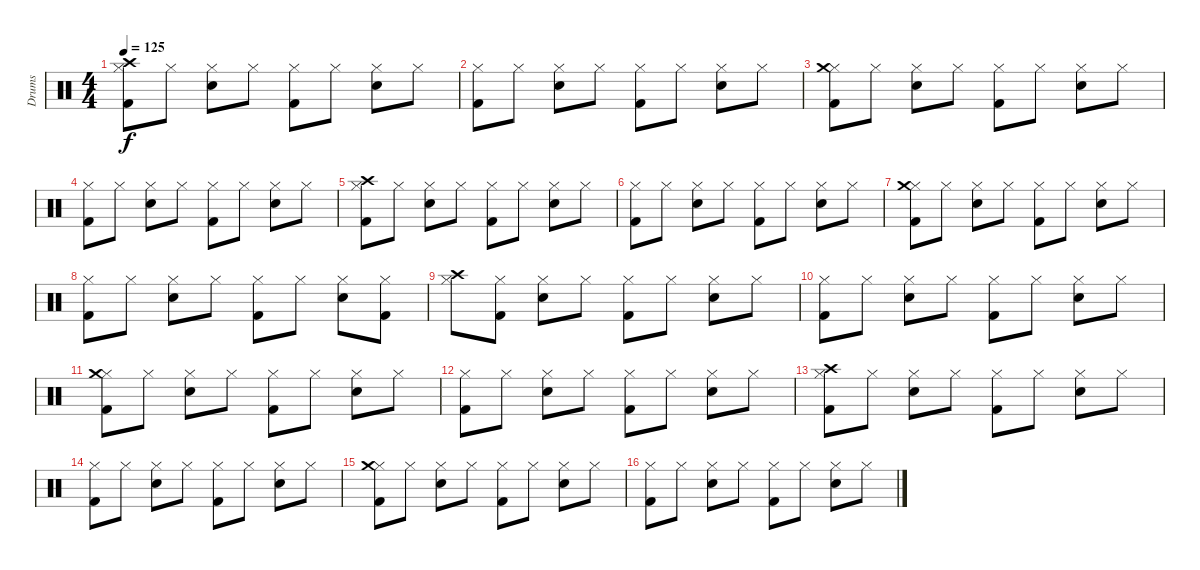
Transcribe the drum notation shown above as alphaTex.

\track ("Drums" "Drums") {instrument percussion}
\staff {score}
\articulation defaults
\ts (4 4)
\tempo 125
\clef neutral
\ks c
("Kick (hit) 2" "Hi-Hat (closed)" "Crash high (hit)").8{dy f} "Hi-Hat (closed)".8 ("Snare (hit) 2" "Hi-Hat (closed)").8 "Hi-Hat (closed)".8 ("Kick (hit) 2" "Hi-Hat (closed)").8 "Hi-Hat (closed)".8 ("Snare (hit) 2" "Hi-Hat (closed)").8 "Hi-Hat (closed)".8 |
("Kick (hit) 2" "Hi-Hat (closed)").8 "Hi-Hat (closed)".8 ("Snare (hit) 2" "Hi-Hat (closed)").8 "Hi-Hat (closed)".8 ("Kick (hit) 2" "Hi-Hat (closed)").8 "Hi-Hat (closed)".8 ("Snare (hit) 2" "Hi-Hat (closed)").8 "Hi-Hat (closed)".8 |
("Kick (hit) 2" "Hi-Hat (closed)" "Crash medium (hit)").8 "Hi-Hat (closed)".8 ("Snare (hit) 2" "Hi-Hat (closed)").8 "Hi-Hat (closed)".8 ("Kick (hit) 2" "Hi-Hat (closed)").8 "Hi-Hat (closed)".8 ("Snare (hit) 2" "Hi-Hat (closed)").8 "Hi-Hat (closed)".8 |
("Kick (hit) 2" "Hi-Hat (closed)").8 "Hi-Hat (closed)".8 ("Snare (hit) 2" "Hi-Hat (closed)").8 "Hi-Hat (closed)".8 ("Kick (hit) 2" "Hi-Hat (closed)").8 "Hi-Hat (closed)".8 ("Snare (hit) 2" "Hi-Hat (closed)").8 "Hi-Hat (closed)".8 |
("Hi-Hat (closed)" "Kick (hit) 2" "Crash high (hit)").8 "Hi-Hat (closed)".8 ("Hi-Hat (closed)" "Snare (hit) 2").8 "Hi-Hat (closed)".8 ("Hi-Hat (closed)" "Kick (hit) 2").8 "Hi-Hat (closed)".8 ("Hi-Hat (closed)" "Snare (hit) 2").8 "Hi-Hat (closed)".8 |
("Hi-Hat (closed)" "Kick (hit) 2").8 "Hi-Hat (closed)".8 ("Hi-Hat (closed)" "Snare (hit) 2").8 "Hi-Hat (closed)".8 ("Hi-Hat (closed)" "Kick (hit) 2").8 "Hi-Hat (closed)".8 ("Hi-Hat (closed)" "Snare (hit) 2").8 "Hi-Hat (closed)".8 |
("Hi-Hat (closed)" "Kick (hit) 2" "Crash medium (hit)").8 "Hi-Hat (closed)".8 ("Hi-Hat (closed)" "Snare (hit) 2").8 "Hi-Hat (closed)".8 ("Hi-Hat (closed)" "Kick (hit) 2").8 "Hi-Hat (closed)".8 ("Hi-Hat (closed)" "Snare (hit) 2").8 "Hi-Hat (closed)".8 |
("Hi-Hat (closed)" "Kick (hit) 2").8 "Hi-Hat (closed)".8 ("Hi-Hat (closed)" "Snare (hit) 2").8 "Hi-Hat (closed)".8 ("Hi-Hat (closed)" "Kick (hit) 2").8 "Hi-Hat (closed)".8 ("Hi-Hat (closed)" "Snare (hit) 2").8 ("Kick (hit) 2" "Hi-Hat (closed)").8 |
("Hi-Hat (closed)" "Crash high (hit)").8 ("Hi-Hat (closed)" "Kick (hit) 2").8 ("Hi-Hat (closed)" "Snare (hit) 2").8 "Hi-Hat (closed)".8 ("Hi-Hat (closed)" "Kick (hit) 2").8 "Hi-Hat (closed)".8 ("Hi-Hat (closed)" "Snare (hit) 2").8 "Hi-Hat (closed)".8 |
("Hi-Hat (closed)" "Kick (hit) 2").8 "Hi-Hat (closed)".8 ("Hi-Hat (closed)" "Snare (hit) 2").8 "Hi-Hat (closed)".8 ("Hi-Hat (closed)" "Kick (hit) 2").8 "Hi-Hat (closed)".8 ("Hi-Hat (closed)" "Snare (hit) 2").8 "Hi-Hat (closed)".8 |
("Hi-Hat (closed)" "Crash medium (hit)" "Kick (hit) 2").8 "Hi-Hat (closed)".8 ("Hi-Hat (closed)" "Snare (hit) 2").8 "Hi-Hat (closed)".8 ("Hi-Hat (closed)" "Kick (hit) 2").8 "Hi-Hat (closed)".8 ("Hi-Hat (closed)" "Snare (hit) 2").8 "Hi-Hat (closed)".8 |
("Hi-Hat (closed)" "Kick (hit) 2").8 "Hi-Hat (closed)".8 ("Hi-Hat (closed)" "Snare (hit) 2").8 "Hi-Hat (closed)".8 ("Hi-Hat (closed)" "Kick (hit) 2").8 "Hi-Hat (closed)".8 ("Hi-Hat (closed)" "Snare (hit) 2").8 "Hi-Hat (closed)".8 |
("Hi-Hat (closed)" "Kick (hit) 2" "Crash high (hit)").8 "Hi-Hat (closed)".8 ("Hi-Hat (closed)" "Snare (hit) 2").8 "Hi-Hat (closed)".8 ("Hi-Hat (closed)" "Kick (hit) 2").8 "Hi-Hat (closed)".8 ("Hi-Hat (closed)" "Snare (hit) 2").8 "Hi-Hat (closed)".8 |
("Hi-Hat (closed)" "Kick (hit) 2").8 "Hi-Hat (closed)".8 ("Hi-Hat (closed)" "Snare (hit) 2").8 "Hi-Hat (closed)".8 ("Hi-Hat (closed)" "Kick (hit) 2").8 "Hi-Hat (closed)".8 ("Hi-Hat (closed)" "Snare (hit) 2").8 "Hi-Hat (closed)".8 |
("Hi-Hat (closed)" "Kick (hit) 2" "Crash medium (hit)").8 "Hi-Hat (closed)".8 ("Hi-Hat (closed)" "Snare (hit) 2").8 "Hi-Hat (closed)".8 ("Hi-Hat (closed)" "Kick (hit) 2").8 "Hi-Hat (closed)".8 ("Hi-Hat (closed)" "Snare (hit) 2").8 "Hi-Hat (closed)".8 |
("Hi-Hat (closed)" "Kick (hit) 2").8 "Hi-Hat (closed)".8 ("Hi-Hat (closed)" "Snare (hit) 2").8 "Hi-Hat (closed)".8 ("Hi-Hat (closed)" "Kick (hit) 2").8 "Hi-Hat (closed)".8 ("Hi-Hat (closed)" "Snare (hit) 2").8 "Hi-Hat (closed)".8
